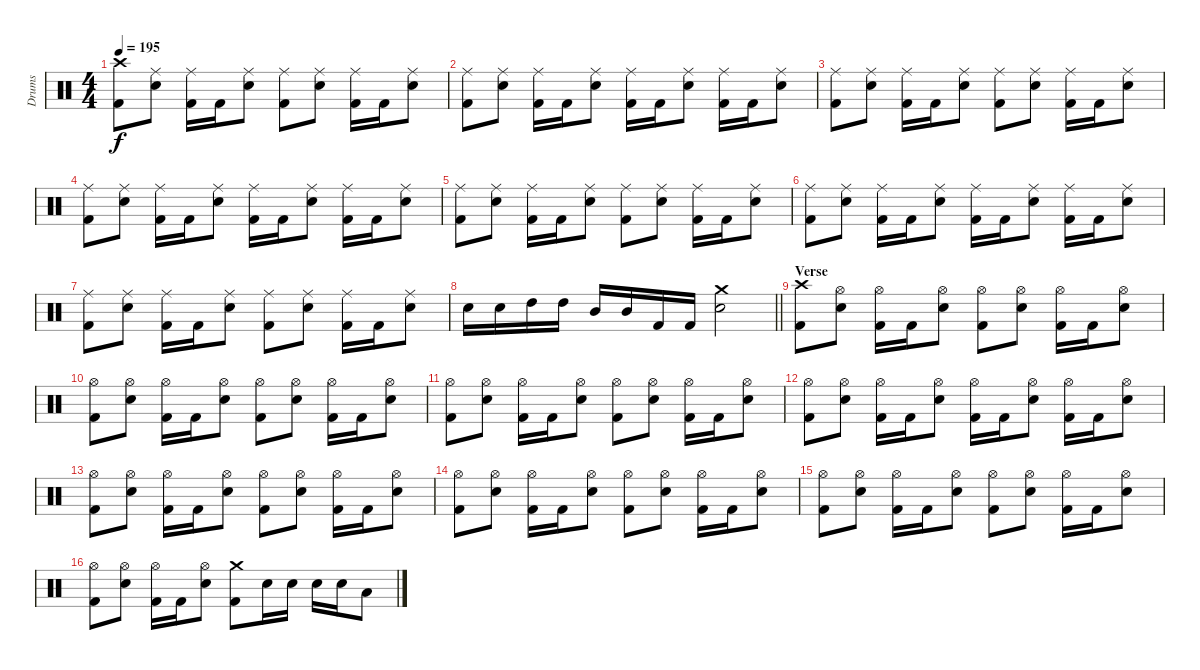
\track ("Drums" "Drums") {instrument percussion}
\staff {score}
\articulation defaults
\ts (4 4)
\tempo 195
\clef neutral
\ks c
("Crash high (hit)" "Kick (hit) 2").8{dy f} ("Ride (middle)" "Electric Snare (hit)").8 ("Ride (middle)" "Kick (hit) 2").16 "Kick (hit) 2".16 ("Ride (middle)" "Electric Snare (hit)").8 ("Ride (middle)" "Kick (hit) 2").8 ("Ride (middle)" "Electric Snare (hit)").8 ("Ride (middle)" "Kick (hit) 2").16 "Kick (hit) 2".16 ("Ride (middle)" "Electric Snare (hit)").8 |
("Ride (middle)" "Kick (hit) 2").8 ("Ride (middle)" "Electric Snare (hit)").8 ("Ride (middle)" "Kick (hit) 2").16 "Kick (hit) 2".16 ("Ride (middle)" "Electric Snare (hit)").8 ("Ride (middle)" "Kick (hit) 2").16 "Kick (hit) 2".16 ("Ride (middle)" "Electric Snare (hit)").8 ("Ride (middle)" "Kick (hit) 2").16 "Kick (hit) 2".16 ("Ride (middle)" "Electric Snare (hit)").8 |
("Ride (middle)" "Kick (hit) 2").8 ("Ride (middle)" "Electric Snare (hit)").8 ("Ride (middle)" "Kick (hit) 2").16 "Kick (hit) 2".16 ("Ride (middle)" "Electric Snare (hit)").8 ("Ride (middle)" "Kick (hit) 2").8 ("Ride (middle)" "Electric Snare (hit)").8 ("Ride (middle)" "Kick (hit) 2").16 "Kick (hit) 2".16 ("Ride (middle)" "Electric Snare (hit)").8 |
("Ride (middle)" "Kick (hit) 2").8 ("Ride (middle)" "Electric Snare (hit)").8 ("Ride (middle)" "Kick (hit) 2").16 "Kick (hit) 2".16 ("Ride (middle)" "Electric Snare (hit)").8 ("Ride (middle)" "Kick (hit) 2").16 "Kick (hit) 2".16 ("Ride (middle)" "Electric Snare (hit)").8 ("Ride (middle)" "Kick (hit) 2").16 "Kick (hit) 2".16 ("Ride (middle)" "Electric Snare (hit)").8 |
("Ride (middle)" "Kick (hit) 2").8 ("Ride (middle)" "Electric Snare (hit)").8 ("Ride (middle)" "Kick (hit) 2").16 "Kick (hit) 2".16 ("Ride (middle)" "Electric Snare (hit)").8 ("Ride (middle)" "Kick (hit) 2").8 ("Ride (middle)" "Electric Snare (hit)").8 ("Ride (middle)" "Kick (hit) 2").16 "Kick (hit) 2".16 ("Ride (middle)" "Electric Snare (hit)").8 |
("Ride (middle)" "Kick (hit) 2").8 ("Ride (middle)" "Electric Snare (hit)").8 ("Ride (middle)" "Kick (hit) 2").16 "Kick (hit) 2".16 ("Ride (middle)" "Electric Snare (hit)").8 ("Ride (middle)" "Kick (hit) 2").16 "Kick (hit) 2".16 ("Ride (middle)" "Electric Snare (hit)").8 ("Ride (middle)" "Kick (hit) 2").16 "Kick (hit) 2".16 ("Ride (middle)" "Electric Snare (hit)").8 |
("Ride (middle)" "Kick (hit) 2").8 ("Ride (middle)" "Electric Snare (hit)").8 ("Ride (middle)" "Kick (hit) 2").16 "Kick (hit) 2".16 ("Ride (middle)" "Electric Snare (hit)").8 ("Ride (middle)" "Kick (hit) 2").8 ("Ride (middle)" "Electric Snare (hit)").8 ("Ride (middle)" "Kick (hit) 2").16 "Kick (hit) 2".16 ("Ride (middle)" "Electric Snare (hit)").8 |
\barLineRight lightlight "Electric Snare (hit)".16 "Electric Snare (hit)".16 "High Tom (hit)".16 "High Tom (hit)".16 "Mid Tom (hit)".16 "Mid Tom (hit)".16 "Kick (hit) 2".16 "Kick (hit) 2".16
("Crash medium (hit)" "Electric Snare (hit)").2 |
\section ("" "Verse")
("Crash high (hit)" "Kick (hit) 2").8 ("Hi-Hat (open)" "Electric Snare (hit)").8 ("Hi-Hat (open)" "Kick (hit) 2").16 "Kick (hit) 2".16 ("Hi-Hat (open)" "Electric Snare (hit)").8 ("Hi-Hat (open)" "Kick (hit) 2").8 ("Hi-Hat (open)" "Electric Snare (hit)").8 ("Hi-Hat (open)" "Kick (hit) 2").16 "Kick (hit) 2".16 ("Hi-Hat (open)" "Electric Snare (hit)").8 |
("Hi-Hat (open)" "Kick (hit) 2").8 ("Hi-Hat (open)" "Electric Snare (hit)").8 ("Hi-Hat (open)" "Kick (hit) 2").16 "Kick (hit) 2".16 ("Hi-Hat (open)" "Electric Snare (hit)").8 ("Hi-Hat (open)" "Kick (hit) 2").8 ("Hi-Hat (open)" "Electric Snare (hit)").8 ("Hi-Hat (open)" "Kick (hit) 2").16 "Kick (hit) 2".16 ("Hi-Hat (open)" "Electric Snare (hit)").8 |
("Hi-Hat (open)" "Kick (hit) 2").8 ("Hi-Hat (open)" "Electric Snare (hit)").8 ("Hi-Hat (open)" "Kick (hit) 2").16 "Kick (hit) 2".16 ("Hi-Hat (open)" "Electric Snare (hit)").8 ("Hi-Hat (open)" "Kick (hit) 2").8 ("Hi-Hat (open)" "Electric Snare (hit)").8 ("Hi-Hat (open)" "Kick (hit) 2").16 "Kick (hit) 2".16 ("Hi-Hat (open)" "Electric Snare (hit)").8 |
("Hi-Hat (open)" "Kick (hit) 2").8 ("Hi-Hat (open)" "Electric Snare (hit)").8 ("Hi-Hat (open)" "Kick (hit) 2").16 "Kick (hit) 2".16 ("Hi-Hat (open)" "Electric Snare (hit)").8 ("Hi-Hat (open)" "Kick (hit) 2").16 "Kick (hit) 2".16 ("Hi-Hat (open)" "Electric Snare (hit)").8 ("Hi-Hat (open)" "Kick (hit) 2").16 "Kick (hit) 2".16 ("Hi-Hat (open)" "Electric Snare (hit)").8 |
("Hi-Hat (open)" "Kick (hit) 2").8 ("Hi-Hat (open)" "Electric Snare (hit)").8 ("Hi-Hat (open)" "Kick (hit) 2").16 "Kick (hit) 2".16 ("Hi-Hat (open)" "Electric Snare (hit)").8 ("Hi-Hat (open)" "Kick (hit) 2").8 ("Hi-Hat (open)" "Electric Snare (hit)").8 ("Hi-Hat (open)" "Kick (hit) 2").16 "Kick (hit) 2".16 ("Hi-Hat (open)" "Electric Snare (hit)").8 |
("Hi-Hat (open)" "Kick (hit) 2").8 ("Hi-Hat (open)" "Electric Snare (hit)").8 ("Hi-Hat (open)" "Kick (hit) 2").16 "Kick (hit) 2".16 ("Hi-Hat (open)" "Electric Snare (hit)").8 ("Hi-Hat (open)" "Kick (hit) 2").8 ("Hi-Hat (open)" "Electric Snare (hit)").8 ("Hi-Hat (open)" "Kick (hit) 2").16 "Kick (hit) 2".16 ("Hi-Hat (open)" "Electric Snare (hit)").8 |
("Hi-Hat (open)" "Kick (hit) 2").8 ("Hi-Hat (open)" "Electric Snare (hit)").8 ("Hi-Hat (open)" "Kick (hit) 2").16 "Kick (hit) 2".16 ("Hi-Hat (open)" "Electric Snare (hit)").8 ("Hi-Hat (open)" "Kick (hit) 2").8 ("Hi-Hat (open)" "Electric Snare (hit)").8 ("Hi-Hat (open)" "Kick (hit) 2").16 "Kick (hit) 2".16 ("Hi-Hat (open)" "Electric Snare (hit)").8 |
("Hi-Hat (open)" "Kick (hit) 2").8 ("Hi-Hat (open)" "Electric Snare (hit)").8 ("Hi-Hat (open)" "Kick (hit) 2").16 "Kick (hit) 2".16 ("Hi-Hat (open)" "Electric Snare (hit)").8 ("Crash medium (hit)" "Kick (hit) 2").8 "Electric Snare (hit)".16 "Electric Snare (hit)".16 "Electric Snare (hit)".16 "Electric Snare (hit)".16 "Low Tom (hit)".8
